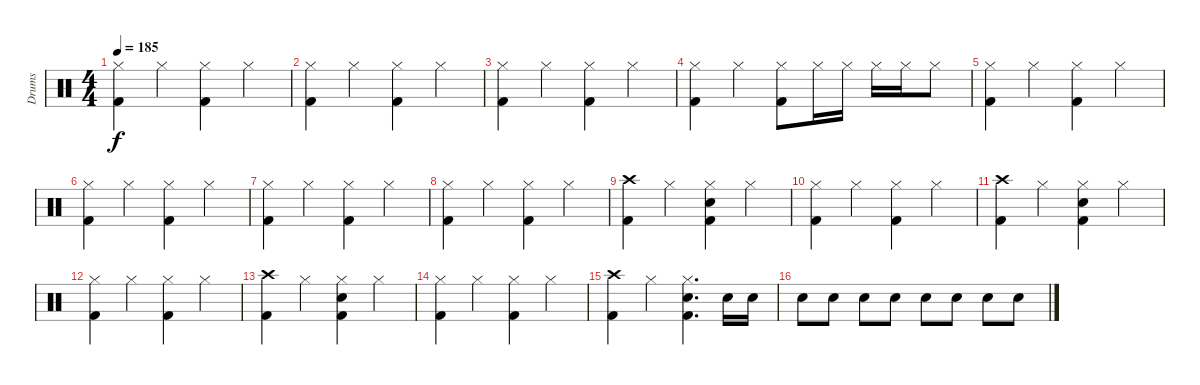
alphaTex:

\track ("Drums" "Drums") {instrument percussion}
\staff {score}
\articulation defaults
\ts (4 4)
\tempo 185
\clef neutral
\ks c
("Hi-Hat (closed)" "Kick (hit) 2").4{dy f} "Hi-Hat (closed)".4 ("Hi-Hat (closed)" "Kick (hit) 2").4 "Hi-Hat (closed)".4 |
("Hi-Hat (closed)" "Kick (hit) 2").4 "Hi-Hat (closed)".4 ("Hi-Hat (closed)" "Kick (hit) 2").4 "Hi-Hat (closed)".4 |
("Hi-Hat (closed)" "Kick (hit) 2").4 "Hi-Hat (closed)".4 ("Hi-Hat (closed)" "Kick (hit) 2").4 "Hi-Hat (closed)".4 |
("Hi-Hat (closed)" "Kick (hit) 2").4 "Hi-Hat (closed)".4 ("Hi-Hat (closed)" "Kick (hit) 2").8 "Hi-Hat (closed)".16 "Hi-Hat (closed)".16 "Hi-Hat (closed)".16 "Hi-Hat (closed)".16 "Hi-Hat (closed)".8 |
("Hi-Hat (closed)" "Kick (hit) 2").4 "Hi-Hat (closed)".4 ("Hi-Hat (closed)" "Kick (hit) 2").4 "Hi-Hat (closed)".4 |
("Hi-Hat (closed)" "Kick (hit) 2").4 "Hi-Hat (closed)".4 ("Hi-Hat (closed)" "Kick (hit) 2").4 "Hi-Hat (closed)".4 |
("Hi-Hat (closed)" "Kick (hit) 2").4 "Hi-Hat (closed)".4 ("Hi-Hat (closed)" "Kick (hit) 2").4 "Hi-Hat (closed)".4 |
("Hi-Hat (closed)" "Kick (hit) 2").4 "Hi-Hat (closed)".4 ("Hi-Hat (closed)" "Kick (hit) 2").4 "Hi-Hat (closed)".4 |
("Crash high (hit)" "Kick (hit) 2").4 "Hi-Hat (closed)".4 ("Hi-Hat (closed)" "Electric Snare (hit)" "Kick (hit) 2").4 "Hi-Hat (closed)".4 |
("Hi-Hat (closed)" "Kick (hit) 2").4 "Hi-Hat (closed)".4 ("Hi-Hat (closed)" "Kick (hit) 2").4 "Hi-Hat (closed)".4 |
("Crash high (hit)" "Kick (hit) 2").4 "Hi-Hat (closed)".4 ("Hi-Hat (closed)" "Electric Snare (hit)" "Kick (hit) 2").4 "Hi-Hat (closed)".4 |
("Hi-Hat (closed)" "Kick (hit) 2").4 "Hi-Hat (closed)".4 ("Hi-Hat (closed)" "Kick (hit) 2").4 "Hi-Hat (closed)".4 |
("Crash high (hit)" "Kick (hit) 2").4 "Hi-Hat (closed)".4 ("Hi-Hat (closed)" "Electric Snare (hit)" "Kick (hit) 2").4 "Hi-Hat (closed)".4 |
("Hi-Hat (closed)" "Kick (hit) 2").4 "Hi-Hat (closed)".4 ("Hi-Hat (closed)" "Kick (hit) 2").4 "Hi-Hat (closed)".4 |
("Crash high (hit)" "Kick (hit) 2").4 "Hi-Hat (closed)".4 ("Hi-Hat (closed)" "Electric Snare (hit)" "Kick (hit) 2").4{d} "Electric Snare (hit)".16 "Electric Snare (hit)".16 |
"Electric Snare (hit)".8 "Electric Snare (hit)".8 "Electric Snare (hit)".8 "Electric Snare (hit)".8 "Electric Snare (hit)".8 "Electric Snare (hit)".8 "Electric Snare (hit)".8 "Electric Snare (hit)".8
